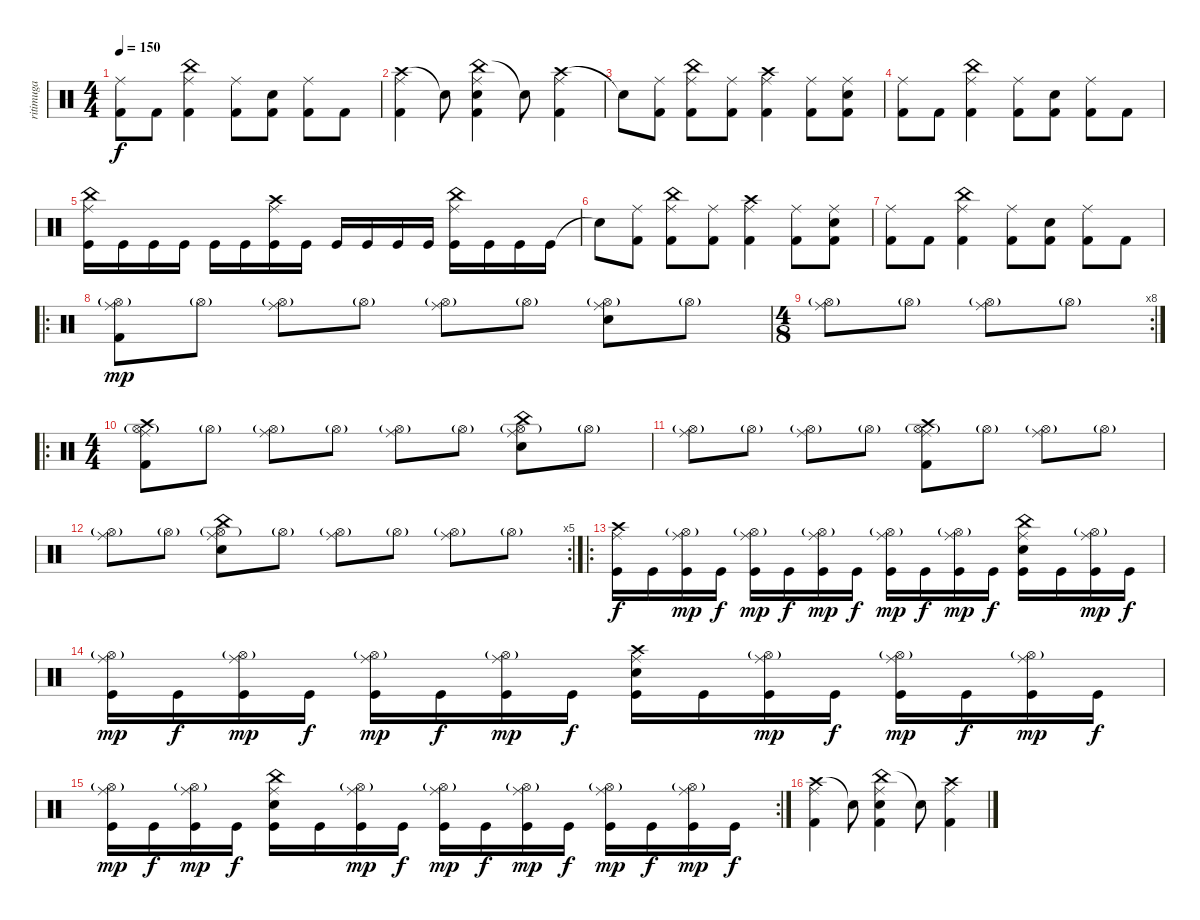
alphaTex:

\track ("ritimuga" "ritimuga") {instrument percussion}
\staff {score}
\articulation defaults
\ts (4 4)
\tempo 150
\clef neutral
\ks c
("Ride (middle)" "Kick (hit) 2").8{dy f} "Kick (hit) 2".8 ("Ride (middle)" "China (hit)" "Kick (hit) 2").4 ("Ride (middle)" "Kick (hit) 2").8 ("Electric Snare (hit)" "Kick (hit) 2").8 ("Ride (middle)" "Kick (hit) 2").8 "Kick (hit) 2".8 |
("Crash high (hit)" "Ride (middle)" "Kick (hit) 2").4 "Snare (hit)"{t}.8 ("China (hit)" "Electric Snare (hit)" "Ride (middle)" "Kick (hit) 2").4 "Snare (hit)"{t}.8 ("Crash high (hit)" "Ride (middle)" "Kick (hit) 2").4 |
"Snare (hit)"{t}.8 ("Ride (middle)" "Kick (hit) 2").8 ("Ride (middle)" "China (hit)" "Kick (hit) 2").8 ("Ride (middle)" "Kick (hit) 2").8 ("Ride (middle)" "Crash high (hit)" "Kick (hit) 2").4 ("Ride (middle)" "Kick (hit) 2").8 ("Ride (middle)" "Electric Snare (hit)" "Kick (hit) 2").8 |
("Ride (middle)" "Kick (hit) 2").8 "Kick (hit) 2".8 ("Ride (middle)" "China (hit)" "Kick (hit) 2").4 ("Ride (middle)" "Kick (hit) 2").8 ("Electric Snare (hit)" "Kick (hit) 2").8 ("Ride (middle)" "Kick (hit) 2").8 "Kick (hit) 2".8 |
("China (hit)" "Ride (middle)" "Kick (hit)").16 "Kick (hit)".16 "Kick (hit)".16 "Kick (hit)".16 "Kick (hit)".16 "Kick (hit)".16 ("Crash high (hit)" "Ride (middle)" "Kick (hit)").16 "Kick (hit)".16 "Kick (hit)".16 "Kick (hit)".16 "Kick (hit)".16 "Kick (hit)".16 ("China (hit)" "Ride (middle)" "Kick (hit)").16 "Kick (hit)".16 "Kick (hit)".16 "Kick (hit)".16 |
"Snare (hit)"{t}.8 ("Ride (middle)" "Kick (hit) 2").8 ("Ride (middle)" "China (hit)" "Kick (hit) 2").8 ("Ride (middle)" "Kick (hit) 2").8 ("Ride (middle)" "Crash high (hit)" "Kick (hit) 2").4 ("Ride (middle)" "Kick (hit) 2").8 ("Ride (middle)" "Electric Snare (hit)" "Kick (hit) 2").8 |
("Ride (middle)" "Kick (hit) 2").8 "Kick (hit) 2".8 ("Ride (middle)" "China (hit)" "Kick (hit) 2").4 ("Ride (middle)" "Kick (hit) 2").8 ("Electric Snare (hit)" "Kick (hit) 2").8 ("Ride (middle)" "Kick (hit) 2").8 "Kick (hit) 2".8 |
\ro
("Hi-Hat (open)"{g} "Ride (middle)" "Kick (hit) 2").8{dy mp} "Hi-Hat (open)"{g}.8 ("Hi-Hat (open)"{g} "Ride (middle)").8 "Hi-Hat (open)"{g}.8 ("Hi-Hat (open)"{g} "Ride (middle)").8 "Hi-Hat (open)"{g}.8 ("Hi-Hat (open)"{g} "Ride (middle)" "Electric Snare (hit)").8 "Hi-Hat (open)"{g}.8 |
\rc 8
\ts (4 8)
("Hi-Hat (open)"{g} "Ride (middle)").8 "Hi-Hat (open)"{g}.8 ("Hi-Hat (open)"{g} "Ride (middle)").8 "Hi-Hat (open)"{g}.8 |
\ro
\ts (4 4)
("Hi-Hat (open)"{g} "Ride (middle)" "Crash high (hit)" "Kick (hit) 2").8 "Hi-Hat (open)"{g}.8 ("Hi-Hat (open)"{g} "Ride (middle)").8 "Hi-Hat (open)"{g}.8 ("Hi-Hat (open)"{g} "Ride (middle)").8 "Hi-Hat (open)"{g}.8 ("Hi-Hat (open)"{g} "Ride (middle)" "China (hit)" "Electric Snare (hit)").8 "Hi-Hat (open)"{g}.8 |
("Hi-Hat (open)"{g} "Ride (middle)").8 "Hi-Hat (open)"{g}.8 ("Hi-Hat (open)"{g} "Ride (middle)").8 "Hi-Hat (open)"{g}.8 ("Hi-Hat (open)"{g} "Ride (middle)" "Crash high (hit)" "Kick (hit) 2").8 "Hi-Hat (open)"{g}.8 ("Hi-Hat (open)"{g} "Ride (middle)").8 "Hi-Hat (open)"{g}.8 |
\rc 5
("Hi-Hat (open)"{g} "Ride (middle)").8 "Hi-Hat (open)"{g}.8 ("Hi-Hat (open)"{g} "Ride (middle)" "China (hit)" "Electric Snare (hit)").8 "Hi-Hat (open)"{g}.8 ("Hi-Hat (open)"{g} "Ride (middle)").8 "Hi-Hat (open)"{g}.8 ("Hi-Hat (open)"{g} "Ride (middle)").8 "Hi-Hat (open)"{g}.8 |
\ro
("Crash high (hit)" "Ride (middle)" "Kick (hit)").16{dy f} "Kick (hit)".16 ("Hi-Hat (open)"{g} "Ride (middle)" "Kick (hit)").16{dy mp} "Kick (hit)".16{dy f} ("Hi-Hat (open)"{g} "Ride (middle)" "Kick (hit)").16{dy mp} "Kick (hit)".16{dy f} ("Hi-Hat (open)"{g} "Ride (middle)" "Kick (hit)").16{dy mp} "Kick (hit)".16{dy f} ("Hi-Hat (open)"{g} "Ride (middle)" "Kick (hit)").16{dy mp} "Kick (hit)".16{dy f} ("Hi-Hat (open)"{g} "Ride (middle)" "Kick (hit)").16{dy mp} "Kick (hit)".16{dy f} ("China (hit)" "Electric Snare (hit)" "Ride (middle)" "Kick (hit)").16 "Kick (hit)".16 ("Hi-Hat (open)"{g} "Ride (middle)" "Kick (hit)").16{dy mp} "Kick (hit)".16{dy f} |
("Hi-Hat (open)"{g} "Ride (middle)" "Kick (hit)").16{dy mp} "Kick (hit)".16{dy f} ("Hi-Hat (open)"{g} "Ride (middle)" "Kick (hit)").16{dy mp} "Kick (hit)".16{dy f} ("Hi-Hat (open)"{g} "Ride (middle)" "Kick (hit)").16{dy mp} "Kick (hit)".16{dy f} ("Hi-Hat (open)"{g} "Ride (middle)" "Kick (hit)").16{dy mp} "Kick (hit)".16{dy f} ("Crash high (hit)" "Electric Snare (hit)" "Ride (middle)" "Kick (hit)").16 "Kick (hit)".16 ("Hi-Hat (open)"{g} "Ride (middle)" "Kick (hit)").16{dy mp} "Kick (hit)".16{dy f} ("Hi-Hat (open)"{g} "Ride (middle)" "Kick (hit)").16{dy mp} "Kick (hit)".16{dy f} ("Hi-Hat (open)"{g} "Ride (middle)" "Kick (hit)").16{dy mp} "Kick (hit)".16{dy f} |
\rc 2
("Hi-Hat (open)"{g} "Ride (middle)" "Kick (hit)").16{dy mp} "Kick (hit)".16{dy f} ("Hi-Hat (open)"{g} "Ride (middle)" "Kick (hit)").16{dy mp} "Kick (hit)".16{dy f} ("China (hit)" "Electric Snare (hit)" "Ride (middle)" "Kick (hit)").16 "Kick (hit)".16 ("Hi-Hat (open)"{g} "Ride (middle)" "Kick (hit)").16{dy mp} "Kick (hit)".16{dy f} ("Hi-Hat (open)"{g} "Ride (middle)" "Kick (hit)").16{dy mp} "Kick (hit)".16{dy f} ("Hi-Hat (open)"{g} "Ride (middle)" "Kick (hit)").16{dy mp} "Kick (hit)".16{dy f} ("Hi-Hat (open)"{g} "Ride (middle)" "Kick (hit)").16{dy mp} "Kick (hit)".16{dy f} ("Hi-Hat (open)"{g} "Ride (middle)" "Kick (hit)").16{dy mp} "Kick (hit)".16{dy f} |
("Crash high (hit)" "Ride (middle)" "Kick (hit) 2").4 "Snare (hit)"{t}.8 ("China (hit)" "Electric Snare (hit)" "Ride (middle)" "Kick (hit) 2").4 "Snare (hit)"{t}.8 ("Crash high (hit)" "Ride (middle)" "Kick (hit) 2").4
